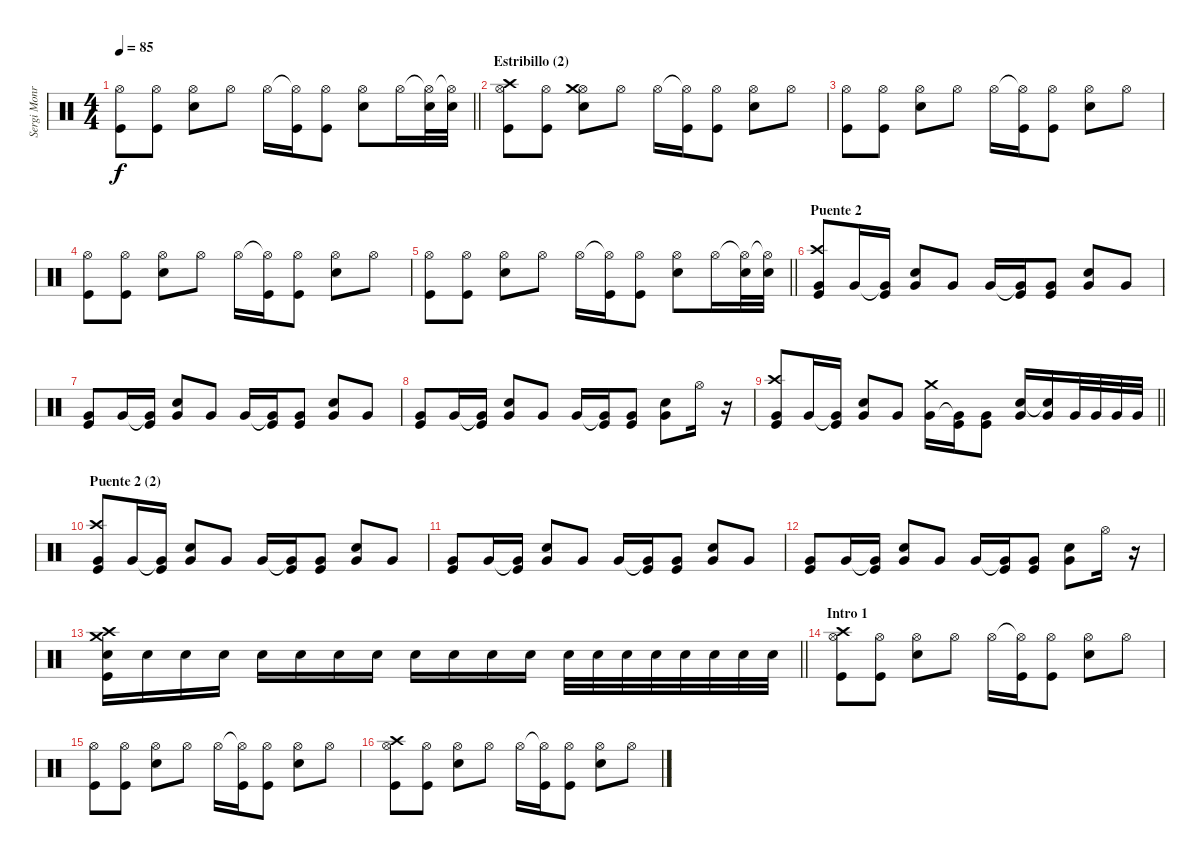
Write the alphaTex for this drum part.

\track ("Sergi Monroy" "Sergi Monr") {instrument percussion}
\staff {score}
\articulation defaults
\ts (4 4)
\tempo 85
\clef neutral
\barLineRight lightlight
\ks c
("Hi-Hat (open)" "Kick (hit)").8{dy f} ("Hi-Hat (open)" "Kick (hit)").8 ("Hi-Hat (open)" "Electric Snare (hit)").8 "Hi-Hat (open)".8 "Hi-Hat (open)".16 ("Hi-Hat (open)"{t} "Kick (hit)").16 ("Hi-Hat (open)" "Kick (hit)").8 ("Hi-Hat (open)" "Electric Snare (hit)").8 "Hi-Hat (open)".16 ("Hi-Hat (open)"{t} "Electric Snare (hit)").32 ("Hi-Hat (open)"{t} "Electric Snare (hit)").32 |
\section ("" "Estribillo (2)")
("Hi-Hat (open)" "Kick (hit)" "Crash high (hit)").8 ("Hi-Hat (open)" "Kick (hit)").8 ("Hi-Hat (open)" "Electric Snare (hit)" "Crash medium (hit)").8 "Hi-Hat (open)".8 "Hi-Hat (open)".16 ("Hi-Hat (open)"{t} "Kick (hit)").16 ("Hi-Hat (open)" "Kick (hit)").8 ("Hi-Hat (open)" "Electric Snare (hit)").8 "Hi-Hat (open)".8 |
("Hi-Hat (open)" "Kick (hit)").8 ("Hi-Hat (open)" "Kick (hit)").8 ("Hi-Hat (open)" "Electric Snare (hit)").8 "Hi-Hat (open)".8 "Hi-Hat (open)".16 ("Hi-Hat (open)"{t} "Kick (hit)").16 ("Hi-Hat (open)" "Kick (hit)").8 ("Hi-Hat (open)" "Electric Snare (hit)").8 "Hi-Hat (open)".8 |
("Hi-Hat (open)" "Kick (hit)").8 ("Hi-Hat (open)" "Kick (hit)").8 ("Hi-Hat (open)" "Electric Snare (hit)").8 "Hi-Hat (open)".8 "Hi-Hat (open)".16 ("Hi-Hat (open)"{t} "Kick (hit)").16 ("Hi-Hat (open)" "Kick (hit)").8 ("Hi-Hat (open)" "Electric Snare (hit)").8 "Hi-Hat (open)".8 |
\barLineRight lightlight
("Hi-Hat (open)" "Kick (hit)").8 ("Hi-Hat (open)" "Kick (hit)").8 ("Hi-Hat (open)" "Electric Snare (hit)").8 "Hi-Hat (open)".8 "Hi-Hat (open)".16 ("Hi-Hat (open)"{t} "Kick (hit)").16 ("Hi-Hat (open)" "Kick (hit)").8 ("Hi-Hat (open)" "Electric Snare (hit)").8 "Hi-Hat (open)".16 ("Hi-Hat (open)"{t} "Electric Snare (hit)").32 ("Hi-Hat (open)"{t} "Electric Snare (hit)").32 |
\section ("" "Puente 2")
("Very Low Tom (hit)" "Kick (hit)" "Crash high (hit)").8 "Very Low Tom (hit)".16 ("Very Low Tom (hit)"{t} "Kick (hit)").16 ("Very Low Tom (hit)" "Electric Snare (hit)").8 "Very Low Tom (hit)".8 "Very Low Tom (hit)".16 ("Very Low Tom (hit)"{t} "Kick (hit)").16 ("Very Low Tom (hit)" "Kick (hit)").8 ("Very Low Tom (hit)" "Electric Snare (hit)").8 "Very Low Tom (hit)".8 |
("Very Low Tom (hit)" "Kick (hit)").8 "Very Low Tom (hit)".16 ("Very Low Tom (hit)"{t} "Kick (hit)").16 ("Very Low Tom (hit)" "Electric Snare (hit)").8 "Very Low Tom (hit)".8 "Very Low Tom (hit)".16 ("Very Low Tom (hit)"{t} "Kick (hit)").16 ("Very Low Tom (hit)" "Kick (hit)").8 ("Very Low Tom (hit)" "Electric Snare (hit)").8 "Very Low Tom (hit)".8 |
("Very Low Tom (hit)" "Kick (hit)").8 "Very Low Tom (hit)".16 ("Very Low Tom (hit)"{t} "Kick (hit)").16 ("Very Low Tom (hit)" "Electric Snare (hit)").8 "Very Low Tom (hit)".8 "Very Low Tom (hit)".16 ("Very Low Tom (hit)"{t} "Kick (hit)").16 ("Very Low Tom (hit)" "Kick (hit)").8 ("Very Low Tom (hit)" "Electric Snare (hit)").8 "Hi-Hat (open)".16 r.16 |
\barLineRight lightlight
("Very Low Tom (hit)" "Kick (hit)" "Crash high (hit)").8 "Very Low Tom (hit)".16 ("Very Low Tom (hit)"{t} "Kick (hit)").16 ("Very Low Tom (hit)" "Electric Snare (hit)").8 "Very Low Tom (hit)".8 ("Very Low Tom (hit)" "Crash medium (hit)").16 ("Very Low Tom (hit)"{t} "Kick (hit)").16 ("Very Low Tom (hit)" "Kick (hit)").8 ("Very Low Tom (hit)" "Electric Snare (hit)").16 ("Very Low Tom (hit)" "Electric Snare (hit)"{t}).16 "Very Low Tom (hit)".32 "Very Low Tom (hit)".32 "Very Low Tom (hit)".32 "Very Low Tom (hit)".32 |
\section ("" "Puente 2 (2)")
("Very Low Tom (hit)" "Kick (hit)" "Crash high (hit)").8 "Very Low Tom (hit)".16 ("Very Low Tom (hit)"{t} "Kick (hit)").16 ("Very Low Tom (hit)" "Electric Snare (hit)").8 "Very Low Tom (hit)".8 "Very Low Tom (hit)".16 ("Very Low Tom (hit)"{t} "Kick (hit)").16 ("Very Low Tom (hit)" "Kick (hit)").8 ("Very Low Tom (hit)" "Electric Snare (hit)").8 "Very Low Tom (hit)".8 |
("Very Low Tom (hit)" "Kick (hit)").8 "Very Low Tom (hit)".16 ("Very Low Tom (hit)"{t} "Kick (hit)").16 ("Very Low Tom (hit)" "Electric Snare (hit)").8 "Very Low Tom (hit)".8 "Very Low Tom (hit)".16 ("Very Low Tom (hit)"{t} "Kick (hit)").16 ("Very Low Tom (hit)" "Kick (hit)").8 ("Very Low Tom (hit)" "Electric Snare (hit)").8 "Very Low Tom (hit)".8 |
("Very Low Tom (hit)" "Kick (hit)").8 "Very Low Tom (hit)".16 ("Very Low Tom (hit)"{t} "Kick (hit)").16 ("Very Low Tom (hit)" "Electric Snare (hit)").8 "Very Low Tom (hit)".8 "Very Low Tom (hit)".16 ("Very Low Tom (hit)"{t} "Kick (hit)").16 ("Very Low Tom (hit)" "Kick (hit)").8 ("Very Low Tom (hit)" "Electric Snare (hit)").8 "Hi-Hat (open)".16 r.16 |
\barLineRight lightlight
("Kick (hit)" "Electric Snare (hit)" "Crash medium (hit)" "Crash high (hit)").16 "Electric Snare (hit)".16 "Electric Snare (hit)".16 "Electric Snare (hit)".16 "Electric Snare (hit)".16 "Electric Snare (hit)".16 "Electric Snare (hit)".16 "Electric Snare (hit)".16 "Electric Snare (hit)".16 "Electric Snare (hit)".16 "Electric Snare (hit)".16 "Electric Snare (hit)".16 "Electric Snare (hit)".32 "Electric Snare (hit)".32 "Electric Snare (hit)".32 "Electric Snare (hit)".32 "Electric Snare (hit)".32 "Electric Snare (hit)".32 "Electric Snare (hit)".32 "Electric Snare (hit)".32 |
\section ("" "Intro 1")
("Hi-Hat (open)" "Kick (hit)" "Crash high (hit)").8 ("Hi-Hat (open)" "Kick (hit)").8 ("Hi-Hat (open)" "Electric Snare (hit)").8 "Hi-Hat (open)".8 "Hi-Hat (open)".16 ("Hi-Hat (open)"{t} "Kick (hit)").16 ("Hi-Hat (open)" "Kick (hit)").8 ("Hi-Hat (open)" "Electric Snare (hit)").8 "Hi-Hat (open)".8 |
("Hi-Hat (open)" "Kick (hit)").8 ("Hi-Hat (open)" "Kick (hit)").8 ("Hi-Hat (open)" "Electric Snare (hit)").8 "Hi-Hat (open)".8 "Hi-Hat (open)".16 ("Hi-Hat (open)"{t} "Kick (hit)").16 ("Hi-Hat (open)" "Kick (hit)").8 ("Hi-Hat (open)" "Electric Snare (hit)").8 "Hi-Hat (open)".8 |
("Hi-Hat (open)" "Kick (hit)" "Crash high (hit)").8 ("Hi-Hat (open)" "Kick (hit)").8 ("Hi-Hat (open)" "Electric Snare (hit)").8 "Hi-Hat (open)".8 "Hi-Hat (open)".16 ("Hi-Hat (open)"{t} "Kick (hit)").16 ("Hi-Hat (open)" "Kick (hit)").8 ("Hi-Hat (open)" "Electric Snare (hit)").8 "Hi-Hat (open)".8
